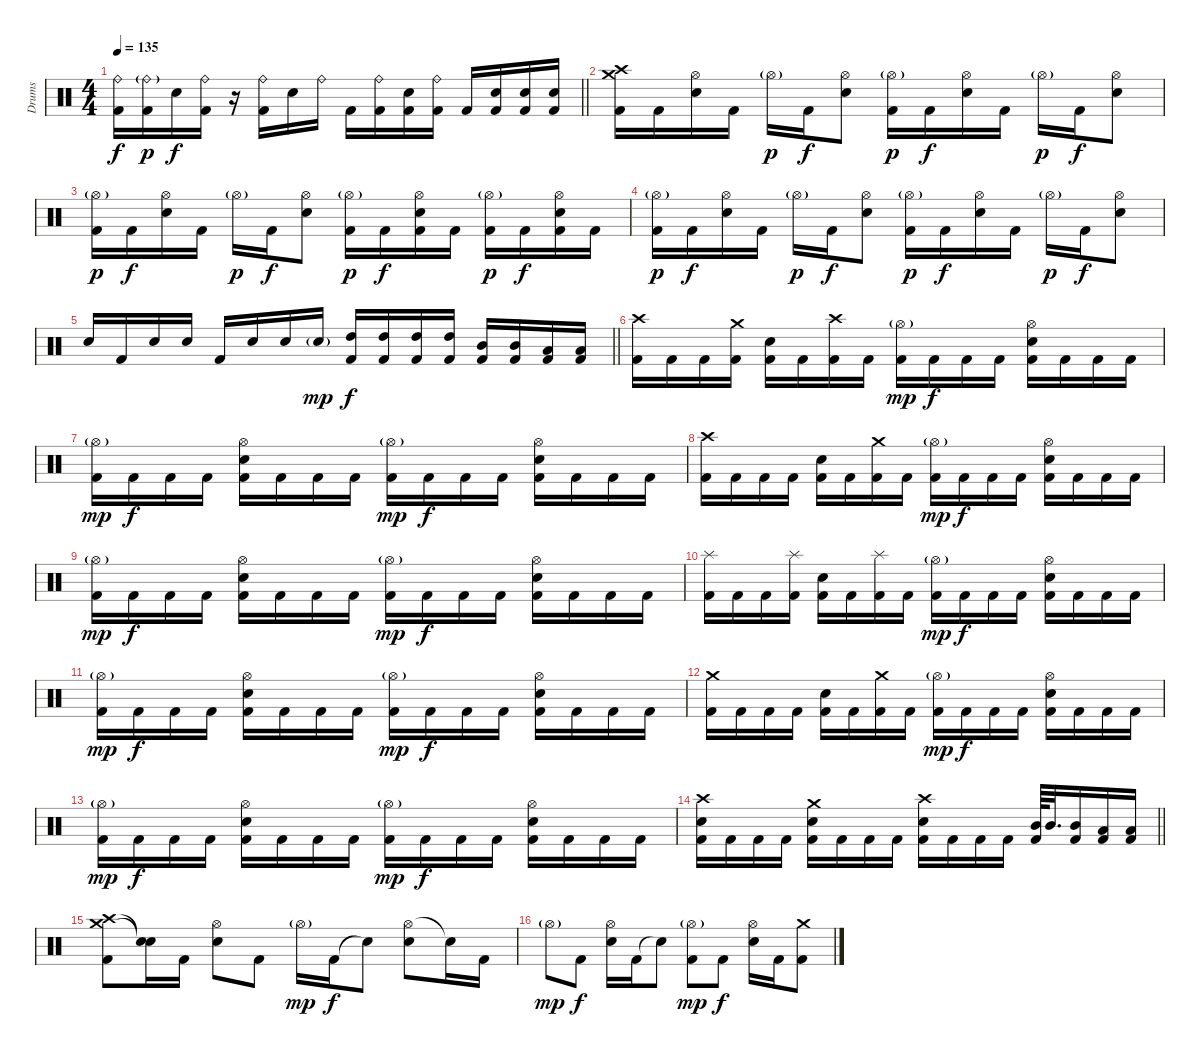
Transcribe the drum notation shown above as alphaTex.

\track ("Drums" "Drums") {instrument percussion}
\staff {score}
\articulation defaults
\ts (4 4)
\tempo 135
\clef neutral
\barLineRight lightlight
\ks c
("Ride (bell)" "Kick (hit) 2").16{dy f} ("Ride (bell)"{g} "Kick (hit) 2").16{dy p} "Electric Snare (hit)".16{dy f} ("Ride (bell)" "Kick (hit) 2").16 r.16 ("Ride (bell)" "Kick (hit) 2").16 "Electric Snare (hit)".16 "Ride (bell)".16 "Kick (hit) 2".16 ("Ride (bell)" "Kick (hit) 2").16 ("Electric Snare (hit)" "Kick (hit) 2").16 ("Ride (bell)" "Kick (hit) 2").16 "Kick (hit) 2".16 ("Electric Snare (hit)" "Kick (hit) 2").16 ("Electric Snare (hit)" "Kick (hit) 2").16 ("Electric Snare (hit)" "Kick (hit) 2").16 |
("Crash high (hit)" "Crash medium (hit)" "Kick (hit) 2").16 "Kick (hit) 2".16 ("Hi-Hat (open)" "Electric Snare (hit)").16 "Kick (hit) 2".16 "Hi-Hat (open)"{g}.16{dy p} "Kick (hit) 2".16{dy f} ("Hi-Hat (open)" "Electric Snare (hit)").8 ("Hi-Hat (open)"{g} "Kick (hit) 2").16{dy p} "Kick (hit) 2".16{dy f} ("Hi-Hat (open)" "Electric Snare (hit)").16 "Kick (hit) 2".16 "Hi-Hat (open)"{g}.16{dy p} "Kick (hit) 2".16{dy f} ("Hi-Hat (open)" "Electric Snare (hit)").8 |
("Hi-Hat (open)"{g} "Kick (hit) 2").16{dy p} "Kick (hit) 2".16{dy f} ("Hi-Hat (open)" "Electric Snare (hit)").16 "Kick (hit) 2".16 "Hi-Hat (open)"{g}.16{dy p} "Kick (hit) 2".16{dy f} ("Hi-Hat (open)" "Electric Snare (hit)").8 ("Hi-Hat (open)"{g} "Kick (hit) 2").16{dy p} "Kick (hit) 2".16{dy f} ("Hi-Hat (open)" "Electric Snare (hit)" "Kick (hit) 2").16 "Kick (hit) 2".16 ("Hi-Hat (open)"{g} "Kick (hit) 2").16{dy p} "Kick (hit) 2".16{dy f} ("Hi-Hat (open)" "Electric Snare (hit)" "Kick (hit) 2").16 "Kick (hit) 2".16 |
("Hi-Hat (open)"{g} "Kick (hit) 2").16{dy p} "Kick (hit) 2".16{dy f} ("Hi-Hat (open)" "Electric Snare (hit)").16 "Kick (hit) 2".16 "Hi-Hat (open)"{g}.16{dy p} "Kick (hit) 2".16{dy f} ("Hi-Hat (open)" "Electric Snare (hit)").8 ("Hi-Hat (open)"{g} "Kick (hit) 2").16{dy p} "Kick (hit) 2".16{dy f} ("Hi-Hat (open)" "Electric Snare (hit)").16 "Kick (hit) 2".16 "Hi-Hat (open)"{g}.16{dy p} "Kick (hit) 2".16{dy f} ("Hi-Hat (open)" "Electric Snare (hit)").8 |
\barLineRight lightlight "Electric Snare (hit)".16 "Kick (hit) 2".16 "Electric Snare (hit)".16 "Electric Snare (hit)".16 "Kick (hit) 2".16 "Electric Snare (hit)".16 "Electric Snare (hit)".16 "Electric Snare (hit)"{g}.16{dy mp}
("High Tom (hit)" "Kick (hit) 2").16{dy f} ("High Tom (hit)" "Kick (hit) 2").16 ("High Tom (hit)" "Kick (hit) 2").16 ("High Tom (hit)" "Kick (hit) 2").16 ("Mid Tom (hit)" "Kick (hit) 2").16 ("Mid Tom (hit)" "Kick (hit) 2").16 ("Low Tom (hit)" "Kick (hit) 2").16 ("Low Tom (hit)" "Kick (hit) 2").16 |
("Crash high (hit)" "Kick (hit) 2").16 "Kick (hit) 2".16 "Kick (hit) 2".16 ("Crash medium (hit)" "Kick (hit) 2").16 ("Electric Snare (hit)" "Kick (hit) 2").16 "Kick (hit) 2".16 ("Crash high (hit)" "Kick (hit) 2").16 "Kick (hit) 2".16 ("Hi-Hat (open)"{g} "Kick (hit) 2").16{dy mp} "Kick (hit) 2".16{dy f} "Kick (hit) 2".16 "Kick (hit) 2".16 ("Hi-Hat (open)" "Electric Snare (hit)" "Kick (hit) 2").16 "Kick (hit) 2".16 "Kick (hit) 2".16 "Kick (hit) 2".16 |
("Hi-Hat (open)"{g} "Kick (hit) 2").16{dy mp} "Kick (hit) 2".16{dy f} "Kick (hit) 2".16 "Kick (hit) 2".16 ("Hi-Hat (open)" "Electric Snare (hit)" "Kick (hit) 2").16 "Kick (hit) 2".16 "Kick (hit) 2".16 "Kick (hit) 2".16 ("Hi-Hat (open)"{g} "Kick (hit) 2").16{dy mp} "Kick (hit) 2".16{dy f} "Kick (hit) 2".16 "Kick (hit) 2".16 ("Hi-Hat (open)" "Electric Snare (hit)" "Kick (hit) 2").16 "Kick (hit) 2".16 "Kick (hit) 2".16 "Kick (hit) 2".16 |
("Crash high (hit)" "Kick (hit) 2").16 "Kick (hit) 2".16 "Kick (hit) 2".16 "Kick (hit) 2".16 ("Electric Snare (hit)" "Kick (hit) 2").16 "Kick (hit) 2".16 ("Crash medium (hit)" "Kick (hit) 2").16 "Kick (hit) 2".16 ("Hi-Hat (open)"{g} "Kick (hit) 2").16{dy mp} "Kick (hit) 2".16{dy f} "Kick (hit) 2".16 "Kick (hit) 2".16 ("Hi-Hat (open)" "Electric Snare (hit)" "Kick (hit) 2").16 "Kick (hit) 2".16 "Kick (hit) 2".16 "Kick (hit) 2".16 |
("Hi-Hat (open)"{g} "Kick (hit) 2").16{dy mp} "Kick (hit) 2".16{dy f} "Kick (hit) 2".16 "Kick (hit) 2".16 ("Hi-Hat (open)" "Electric Snare (hit)" "Kick (hit) 2").16 "Kick (hit) 2".16 "Kick (hit) 2".16 "Kick (hit) 2".16 ("Hi-Hat (open)"{g} "Kick (hit) 2").16{dy mp} "Kick (hit) 2".16{dy f} "Kick (hit) 2".16 "Kick (hit) 2".16 ("Hi-Hat (open)" "Electric Snare (hit)" "Kick (hit) 2").16 "Kick (hit) 2".16 "Kick (hit) 2".16 "Kick (hit) 2".16 |
("Splash (hit)" "Kick (hit) 2").16 "Kick (hit) 2".16 "Kick (hit) 2".16 ("Splash (hit)" "Kick (hit) 2").16 ("Electric Snare (hit)" "Kick (hit) 2").16 "Kick (hit) 2".16 ("Splash (hit)" "Kick (hit) 2").16 "Kick (hit) 2".16 ("Hi-Hat (open)"{g} "Kick (hit) 2").16{dy mp} "Kick (hit) 2".16{dy f} "Kick (hit) 2".16 "Kick (hit) 2".16 ("Hi-Hat (open)" "Electric Snare (hit)" "Kick (hit) 2").16 "Kick (hit) 2".16 "Kick (hit) 2".16 "Kick (hit) 2".16 |
("Hi-Hat (open)"{g} "Kick (hit) 2").16{dy mp} "Kick (hit) 2".16{dy f} "Kick (hit) 2".16 "Kick (hit) 2".16 ("Hi-Hat (open)" "Electric Snare (hit)" "Kick (hit) 2").16 "Kick (hit) 2".16 "Kick (hit) 2".16 "Kick (hit) 2".16 ("Hi-Hat (open)"{g} "Kick (hit) 2").16{dy mp} "Kick (hit) 2".16{dy f} "Kick (hit) 2".16 "Kick (hit) 2".16 ("Hi-Hat (open)" "Electric Snare (hit)" "Kick (hit) 2").16 "Kick (hit) 2".16 "Kick (hit) 2".16 "Kick (hit) 2".16 |
("Crash medium (hit)" "Kick (hit) 2").16 "Kick (hit) 2".16 "Kick (hit) 2".16 "Kick (hit) 2".16 ("Electric Snare (hit)" "Kick (hit) 2").16 "Kick (hit) 2".16 ("Crash medium (hit)" "Kick (hit) 2").16 "Kick (hit) 2".16 ("Hi-Hat (open)"{g} "Kick (hit) 2").16{dy mp} "Kick (hit) 2".16{dy f} "Kick (hit) 2".16 "Kick (hit) 2".16 ("Hi-Hat (open)" "Electric Snare (hit)" "Kick (hit) 2").16 "Kick (hit) 2".16 "Kick (hit) 2".16 "Kick (hit) 2".16 |
("Hi-Hat (open)"{g} "Kick (hit) 2").16{dy mp} "Kick (hit) 2".16{dy f} "Kick (hit) 2".16 "Kick (hit) 2".16 ("Hi-Hat (open)" "Electric Snare (hit)" "Kick (hit) 2").16 "Kick (hit) 2".16 "Kick (hit) 2".16 "Kick (hit) 2".16 ("Hi-Hat (open)"{g} "Kick (hit) 2").16{dy mp} "Kick (hit) 2".16{dy f} "Kick (hit) 2".16 "Kick (hit) 2".16 ("Hi-Hat (open)" "Electric Snare (hit)" "Kick (hit) 2").16 "Kick (hit) 2".16 "Kick (hit) 2".16 "Kick (hit) 2".16 |
\barLineRight lightlight
("Crash high (hit)" "Electric Snare (hit)" "Kick (hit) 2").16 "Kick (hit) 2".16 "Kick (hit) 2".16 "Kick (hit) 2".16 ("Crash medium (hit)" "Electric Snare (hit)" "Kick (hit) 2").16 "Kick (hit) 2".16 "Kick (hit) 2".16 "Kick (hit) 2".16 ("Crash high (hit)" "Electric Snare (hit)" "Kick (hit) 2").16 "Kick (hit) 2".16 "Kick (hit) 2".16 "Kick (hit) 2".16 ("Mid Tom (hit)" "Kick (hit) 2").64 "Mid Tom (hit)".32{d} ("Mid Tom (hit)" "Kick (hit) 2").16 ("Low Tom (hit)" "Kick (hit) 2").16 ("Low Tom (hit)" "Kick (hit) 2").16 |
("Crash high (hit)" "Crash medium (hit)" "Kick (hit) 2").8 ("Snare (hit)"{t} "Snare (hit)"{t}).16 "Kick (hit) 2".16 ("Hi-Hat (open)" "Electric Snare (hit)").8 "Kick (hit) 2".8 "Hi-Hat (open)"{g}.16{dy mp} "Kick (hit) 2".16{dy f} "Snare (hit)"{t}.8 ("Hi-Hat (open)" "Electric Snare (hit)").8 "Snare (hit)"{t}.16 "Kick (hit) 2".16 |
"Hi-Hat (open)"{g}.8{dy mp} "Kick (hit) 2".8{dy f} ("Hi-Hat (open)" "Electric Snare (hit)").16 "Kick (hit) 2".16 "Snare (hit)"{t}.8 ("Hi-Hat (open)"{g} "Kick (hit) 2").8{dy mp} "Kick (hit) 2".8{dy f} ("Hi-Hat (open)" "Electric Snare (hit)").16 "Kick (hit) 2".16 ("Crash medium (hit)" "Kick (hit) 2").8
